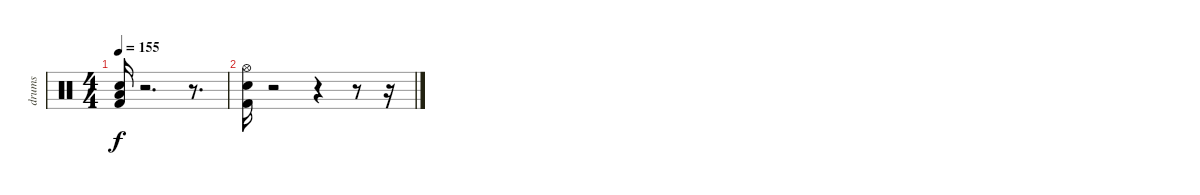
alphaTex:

\track ("drums" "drums") {instrument percussion}
\staff {score}
\articulation defaults
\ts (4 4)
\tempo 155
\clef neutral
\ks c
("Kick (hit) 2" "Snare (hit) 2" "Low Floor Tom (hit)").16{dy f} r.2{d} r.8{d} |
("Kick (hit) 2" "Snare (hit) 2" "Hi-Hat (open)").16 r.2 r.4 r.8 r.16
